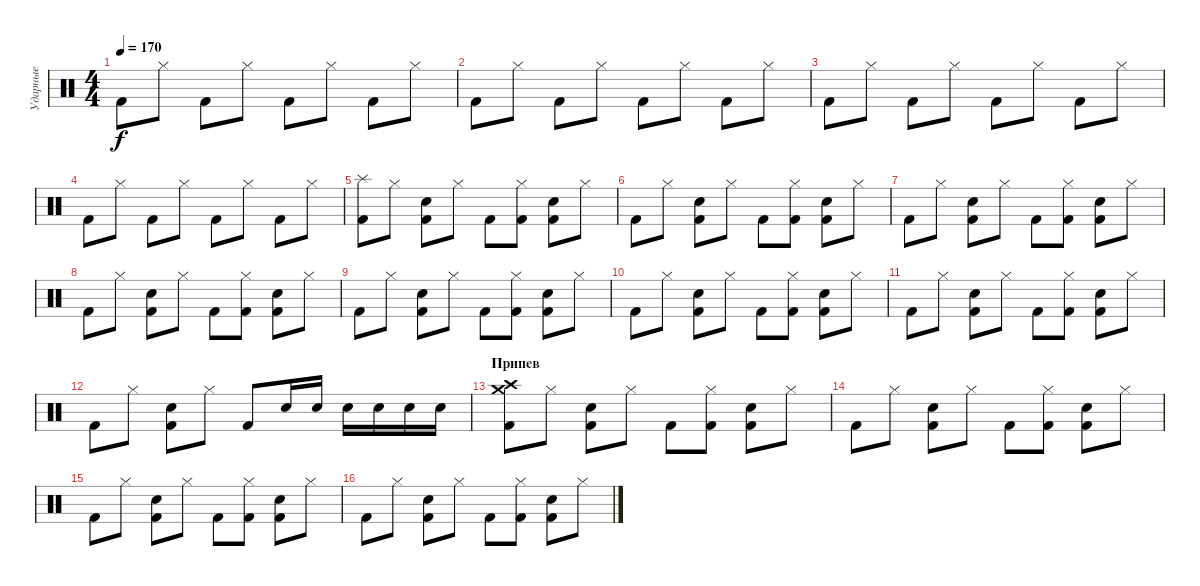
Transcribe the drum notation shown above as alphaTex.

\track ("Ударные" "Ударные") {instrument percussion}
\staff {score}
\articulation defaults
\ts (4 4)
\tempo 170
\clef neutral
\ks c "Kick (hit) 2".8{dy f} "Hi-Hat (closed)".8 "Kick (hit) 2".8 "Hi-Hat (closed)".8 "Kick (hit) 2".8 "Hi-Hat (closed)".8 "Kick (hit) 2".8 "Hi-Hat (closed)".8
|
"Kick (hit) 2".8 "Hi-Hat (closed)".8 "Kick (hit) 2".8 "Hi-Hat (closed)".8 "Kick (hit) 2".8 "Hi-Hat (closed)".8 "Kick (hit) 2".8 "Hi-Hat (closed)".8 |
"Kick (hit) 2".8 "Hi-Hat (closed)".8 "Kick (hit) 2".8 "Hi-Hat (closed)".8 "Kick (hit) 2".8 "Hi-Hat (closed)".8 "Kick (hit) 2".8 "Hi-Hat (closed)".8 |
"Kick (hit) 2".8 "Hi-Hat (closed)".8 "Kick (hit) 2".8 "Hi-Hat (closed)".8 "Kick (hit) 2".8 "Hi-Hat (closed)".8 "Kick (hit) 2".8 "Hi-Hat (closed)".8 |
("Kick (hit) 2" "Splash (hit)").8 "Hi-Hat (closed)".8 ("Kick (hit) 2" "Snare (hit) 2").8 "Hi-Hat (closed)".8 "Kick (hit) 2".8 ("Hi-Hat (closed)" "Kick (hit) 2").8 ("Kick (hit) 2" "Snare (hit) 2").8 "Hi-Hat (closed)".8 |
"Kick (hit) 2".8 "Hi-Hat (closed)".8 ("Kick (hit) 2" "Snare (hit) 2").8 "Hi-Hat (closed)".8 "Kick (hit) 2".8 ("Hi-Hat (closed)" "Kick (hit) 2").8 ("Kick (hit) 2" "Snare (hit) 2").8 "Hi-Hat (closed)".8 |
"Kick (hit) 2".8 "Hi-Hat (closed)".8 ("Kick (hit) 2" "Snare (hit) 2").8 "Hi-Hat (closed)".8 "Kick (hit) 2".8 ("Hi-Hat (closed)" "Kick (hit) 2").8 ("Kick (hit) 2" "Snare (hit) 2").8 "Hi-Hat (closed)".8 |
"Kick (hit) 2".8 "Hi-Hat (closed)".8 ("Kick (hit) 2" "Snare (hit) 2").8 "Hi-Hat (closed)".8 "Kick (hit) 2".8 ("Hi-Hat (closed)" "Kick (hit) 2").8 ("Kick (hit) 2" "Snare (hit) 2").8 "Hi-Hat (closed)".8 |
"Kick (hit) 2".8 "Hi-Hat (closed)".8 ("Kick (hit) 2" "Snare (hit) 2").8 "Hi-Hat (closed)".8 "Kick (hit) 2".8 ("Hi-Hat (closed)" "Kick (hit) 2").8 ("Kick (hit) 2" "Snare (hit) 2").8 "Hi-Hat (closed)".8 |
"Kick (hit) 2".8 "Hi-Hat (closed)".8 ("Kick (hit) 2" "Snare (hit) 2").8 "Hi-Hat (closed)".8 "Kick (hit) 2".8 ("Hi-Hat (closed)" "Kick (hit) 2").8 ("Kick (hit) 2" "Snare (hit) 2").8 "Hi-Hat (closed)".8 |
"Kick (hit) 2".8 "Hi-Hat (closed)".8 ("Kick (hit) 2" "Snare (hit) 2").8 "Hi-Hat (closed)".8 "Kick (hit) 2".8 ("Hi-Hat (closed)" "Kick (hit) 2").8 ("Kick (hit) 2" "Snare (hit) 2").8 "Hi-Hat (closed)".8 |
"Kick (hit) 2".8 "Hi-Hat (closed)".8 ("Kick (hit) 2" "Snare (hit) 2").8 "Hi-Hat (closed)".8 "Kick (hit) 2".8 "Electric Snare (hit)".16 "Electric Snare (hit)".16 "Electric Snare (hit)".16 "Electric Snare (hit)".16 "Electric Snare (hit)".16 "Electric Snare (hit)".16 |
\section ("" "Припев")
("Kick (hit) 2" "Crash medium (hit)" "Crash high (hit)").8 "Hi-Hat (closed)".8 ("Kick (hit) 2" "Snare (hit) 2").8 "Hi-Hat (closed)".8 "Kick (hit) 2".8 ("Hi-Hat (closed)" "Kick (hit) 2").8 ("Kick (hit) 2" "Snare (hit) 2").8 "Hi-Hat (closed)".8 |
"Kick (hit) 2".8 "Hi-Hat (closed)".8 ("Kick (hit) 2" "Snare (hit) 2").8 "Hi-Hat (closed)".8 "Kick (hit) 2".8 ("Hi-Hat (closed)" "Kick (hit) 2").8 ("Kick (hit) 2" "Snare (hit) 2").8 "Hi-Hat (closed)".8 |
"Kick (hit) 2".8 "Hi-Hat (closed)".8 ("Kick (hit) 2" "Snare (hit) 2").8 "Hi-Hat (closed)".8 "Kick (hit) 2".8 ("Hi-Hat (closed)" "Kick (hit) 2").8 ("Kick (hit) 2" "Snare (hit) 2").8 "Hi-Hat (closed)".8 |
"Kick (hit) 2".8 "Hi-Hat (closed)".8 ("Kick (hit) 2" "Snare (hit) 2").8 "Hi-Hat (closed)".8 "Kick (hit) 2".8 ("Hi-Hat (closed)" "Kick (hit) 2").8 ("Kick (hit) 2" "Snare (hit) 2").8 "Hi-Hat (closed)".8
